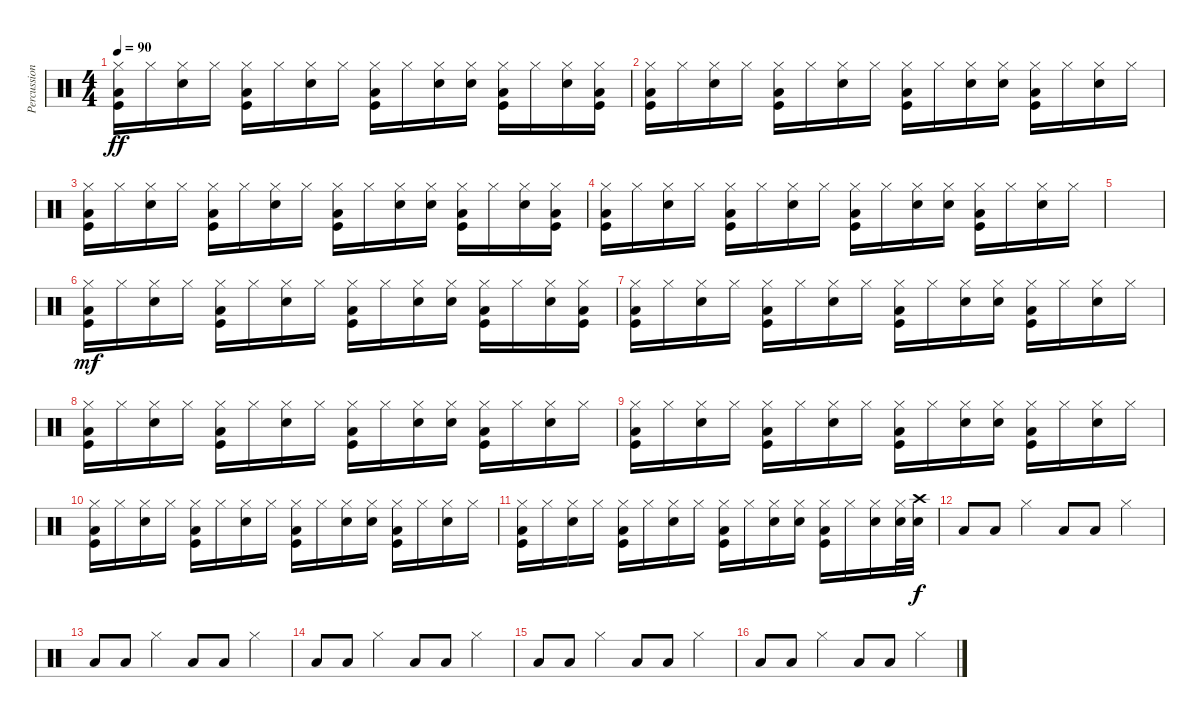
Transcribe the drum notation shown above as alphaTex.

\track ("Percussions" "Percussion") {instrument percussion}
\staff {score}
\articulation defaults
\ts (4 4)
\tempo 90
\clef neutral
\ks c
("Kick (hit)" "Low Floor Tom (hit)" "Hi-Hat (closed)").16{dy ff} "Hi-Hat (closed)".16 ("Snare (hit) 2" "Hi-Hat (closed)").16 "Hi-Hat (closed)".16 ("Kick (hit)" "Low Floor Tom (hit)" "Hi-Hat (closed)").16 "Hi-Hat (closed)".16 ("Snare (hit) 2" "Hi-Hat (closed)").16 "Hi-Hat (closed)".16 ("Kick (hit)" "Low Floor Tom (hit)" "Hi-Hat (closed)").16 "Hi-Hat (closed)".16 ("Snare (hit) 2" "Hi-Hat (closed)").16 ("Hi-Hat (closed)" "Snare (hit) 2").16 ("Kick (hit)" "Low Floor Tom (hit)" "Hi-Hat (closed)").16 "Hi-Hat (closed)".16 ("Snare (hit) 2" "Hi-Hat (closed)").16 ("Hi-Hat (closed)" "Kick (hit)" "Low Floor Tom (hit)").16 |
("Kick (hit)" "Low Floor Tom (hit)" "Hi-Hat (closed)").16 "Hi-Hat (closed)".16 ("Snare (hit) 2" "Hi-Hat (closed)").16 "Hi-Hat (closed)".16 ("Kick (hit)" "Low Floor Tom (hit)" "Hi-Hat (closed)").16 "Hi-Hat (closed)".16 ("Snare (hit) 2" "Hi-Hat (closed)").16 "Hi-Hat (closed)".16 ("Kick (hit)" "Low Floor Tom (hit)" "Hi-Hat (closed)").16 "Hi-Hat (closed)".16 ("Snare (hit) 2" "Hi-Hat (closed)").16 ("Hi-Hat (closed)" "Snare (hit) 2").16 ("Kick (hit)" "Low Floor Tom (hit)" "Hi-Hat (closed)").16 "Hi-Hat (closed)".16 ("Snare (hit) 2" "Hi-Hat (closed)").16 "Hi-Hat (closed)".16 |
("Kick (hit)" "Low Floor Tom (hit)" "Hi-Hat (closed)").16 "Hi-Hat (closed)".16 ("Snare (hit) 2" "Hi-Hat (closed)").16 "Hi-Hat (closed)".16 ("Kick (hit)" "Low Floor Tom (hit)" "Hi-Hat (closed)").16 "Hi-Hat (closed)".16 ("Snare (hit) 2" "Hi-Hat (closed)").16 "Hi-Hat (closed)".16 ("Kick (hit)" "Low Floor Tom (hit)" "Hi-Hat (closed)").16 "Hi-Hat (closed)".16 ("Snare (hit) 2" "Hi-Hat (closed)").16 ("Hi-Hat (closed)" "Snare (hit) 2").16 ("Kick (hit)" "Low Floor Tom (hit)" "Hi-Hat (closed)").16 "Hi-Hat (closed)".16 ("Snare (hit) 2" "Hi-Hat (closed)").16 ("Hi-Hat (closed)" "Kick (hit)" "Low Floor Tom (hit)").16 |
("Kick (hit)" "Low Floor Tom (hit)" "Hi-Hat (closed)").16 "Hi-Hat (closed)".16 ("Snare (hit) 2" "Hi-Hat (closed)").16 "Hi-Hat (closed)".16 ("Kick (hit)" "Low Floor Tom (hit)" "Hi-Hat (closed)").16 "Hi-Hat (closed)".16 ("Snare (hit) 2" "Hi-Hat (closed)").16 "Hi-Hat (closed)".16 ("Kick (hit)" "Low Floor Tom (hit)" "Hi-Hat (closed)").16 "Hi-Hat (closed)".16 ("Snare (hit) 2" "Hi-Hat (closed)").16 ("Hi-Hat (closed)" "Snare (hit) 2").16 ("Kick (hit)" "Low Floor Tom (hit)" "Hi-Hat (closed)").16 "Hi-Hat (closed)".16 ("Snare (hit) 2" "Hi-Hat (closed)").16 "Hi-Hat (closed)".16 |
|
("Kick (hit)" "Low Floor Tom (hit)" "Hi-Hat (closed)").16{dy mf} "Hi-Hat (closed)".16 ("Snare (hit) 2" "Hi-Hat (closed)").16 "Hi-Hat (closed)".16 ("Kick (hit)" "Low Floor Tom (hit)" "Hi-Hat (closed)").16 "Hi-Hat (closed)".16 ("Snare (hit) 2" "Hi-Hat (closed)").16 "Hi-Hat (closed)".16 ("Kick (hit)" "Low Floor Tom (hit)" "Hi-Hat (closed)").16 "Hi-Hat (closed)".16 ("Snare (hit) 2" "Hi-Hat (closed)").16 ("Hi-Hat (closed)" "Snare (hit) 2").16 ("Kick (hit)" "Low Floor Tom (hit)" "Hi-Hat (closed)").16 "Hi-Hat (closed)".16 ("Snare (hit) 2" "Hi-Hat (closed)").16 ("Hi-Hat (closed)" "Kick (hit)" "Low Floor Tom (hit)").16 |
("Kick (hit)" "Low Floor Tom (hit)" "Hi-Hat (closed)").16 "Hi-Hat (closed)".16 ("Snare (hit) 2" "Hi-Hat (closed)").16 "Hi-Hat (closed)".16 ("Kick (hit)" "Low Floor Tom (hit)" "Hi-Hat (closed)").16 "Hi-Hat (closed)".16 ("Snare (hit) 2" "Hi-Hat (closed)").16 "Hi-Hat (closed)".16 ("Kick (hit)" "Low Floor Tom (hit)" "Hi-Hat (closed)").16 "Hi-Hat (closed)".16 ("Snare (hit) 2" "Hi-Hat (closed)").16 ("Hi-Hat (closed)" "Snare (hit) 2").16 ("Kick (hit)" "Low Floor Tom (hit)" "Hi-Hat (closed)").16 "Hi-Hat (closed)".16 ("Snare (hit) 2" "Hi-Hat (closed)").16 "Hi-Hat (closed)".16 |
("Kick (hit)" "Low Floor Tom (hit)" "Hi-Hat (closed)").16 "Hi-Hat (closed)".16 ("Snare (hit) 2" "Hi-Hat (closed)").16 "Hi-Hat (closed)".16 ("Kick (hit)" "Low Floor Tom (hit)" "Hi-Hat (closed)").16 "Hi-Hat (closed)".16 ("Snare (hit) 2" "Hi-Hat (closed)").16 "Hi-Hat (closed)".16 ("Kick (hit)" "Low Floor Tom (hit)" "Hi-Hat (closed)").16 "Hi-Hat (closed)".16 ("Snare (hit) 2" "Hi-Hat (closed)").16 ("Hi-Hat (closed)" "Snare (hit) 2").16 ("Kick (hit)" "Low Floor Tom (hit)" "Hi-Hat (closed)").16 "Hi-Hat (closed)".16 ("Snare (hit) 2" "Hi-Hat (closed)").16 "Hi-Hat (closed)".16 |
("Kick (hit)" "Low Floor Tom (hit)" "Hi-Hat (closed)").16 "Hi-Hat (closed)".16 ("Snare (hit) 2" "Hi-Hat (closed)").16 "Hi-Hat (closed)".16 ("Kick (hit)" "Low Floor Tom (hit)" "Hi-Hat (closed)").16 "Hi-Hat (closed)".16 ("Snare (hit) 2" "Hi-Hat (closed)").16 "Hi-Hat (closed)".16 ("Kick (hit)" "Low Floor Tom (hit)" "Hi-Hat (closed)").16 "Hi-Hat (closed)".16 ("Snare (hit) 2" "Hi-Hat (closed)").16 ("Hi-Hat (closed)" "Snare (hit) 2").16 ("Kick (hit)" "Low Floor Tom (hit)" "Hi-Hat (closed)").16 "Hi-Hat (closed)".16 ("Snare (hit) 2" "Hi-Hat (closed)").16 "Hi-Hat (closed)".16 |
("Kick (hit)" "Low Floor Tom (hit)" "Hi-Hat (closed)").16 "Hi-Hat (closed)".16 ("Snare (hit) 2" "Hi-Hat (closed)").16 "Hi-Hat (closed)".16 ("Kick (hit)" "Low Floor Tom (hit)" "Hi-Hat (closed)").16 "Hi-Hat (closed)".16 ("Snare (hit) 2" "Hi-Hat (closed)").16 "Hi-Hat (closed)".16 ("Kick (hit)" "Low Floor Tom (hit)" "Hi-Hat (closed)").16 "Hi-Hat (closed)".16 ("Snare (hit) 2" "Hi-Hat (closed)").16 ("Hi-Hat (closed)" "Snare (hit) 2").16 ("Kick (hit)" "Low Floor Tom (hit)" "Hi-Hat (closed)").16 "Hi-Hat (closed)".16 ("Snare (hit) 2" "Hi-Hat (closed)").16 "Hi-Hat (closed)".16 |
("Kick (hit)" "Low Floor Tom (hit)" "Hi-Hat (closed)").16 "Hi-Hat (closed)".16 ("Snare (hit) 2" "Hi-Hat (closed)").16 "Hi-Hat (closed)".16 ("Kick (hit)" "Low Floor Tom (hit)" "Hi-Hat (closed)").16 "Hi-Hat (closed)".16 ("Snare (hit) 2" "Hi-Hat (closed)").16 "Hi-Hat (closed)".16 ("Kick (hit)" "Low Floor Tom (hit)" "Hi-Hat (closed)").16 "Hi-Hat (closed)".16 ("Snare (hit) 2" "Hi-Hat (closed)").16 ("Hi-Hat (closed)" "Snare (hit) 2").16 ("Kick (hit)" "Low Floor Tom (hit)" "Hi-Hat (closed)").16 "Hi-Hat (closed)".16 ("Snare (hit) 2" "Hi-Hat (closed)").16 ("Hi-Hat (closed)" "Snare (hit) 2").32 ("Snare (hit) 2" "Crash high (hit)").32{dy f} |
"Low Floor Tom (hit)".8 "Low Floor Tom (hit)".8 "Hi-Hat (closed)".4 "Low Floor Tom (hit)".8 "Low Floor Tom (hit)".8 "Hi-Hat (closed)".4 |
"Low Floor Tom (hit)".8 "Low Floor Tom (hit)".8 "Hi-Hat (closed)".4 "Low Floor Tom (hit)".8 "Low Floor Tom (hit)".8 "Hi-Hat (closed)".4 |
"Low Floor Tom (hit)".8 "Low Floor Tom (hit)".8 "Hi-Hat (closed)".4 "Low Floor Tom (hit)".8 "Low Floor Tom (hit)".8 "Hi-Hat (closed)".4 |
"Low Floor Tom (hit)".8 "Low Floor Tom (hit)".8 "Hi-Hat (closed)".4 "Low Floor Tom (hit)".8 "Low Floor Tom (hit)".8 "Hi-Hat (closed)".4 |
"Low Floor Tom (hit)".8 "Low Floor Tom (hit)".8 "Hi-Hat (closed)".4 "Low Floor Tom (hit)".8 "Low Floor Tom (hit)".8 "Hi-Hat (closed)".4
